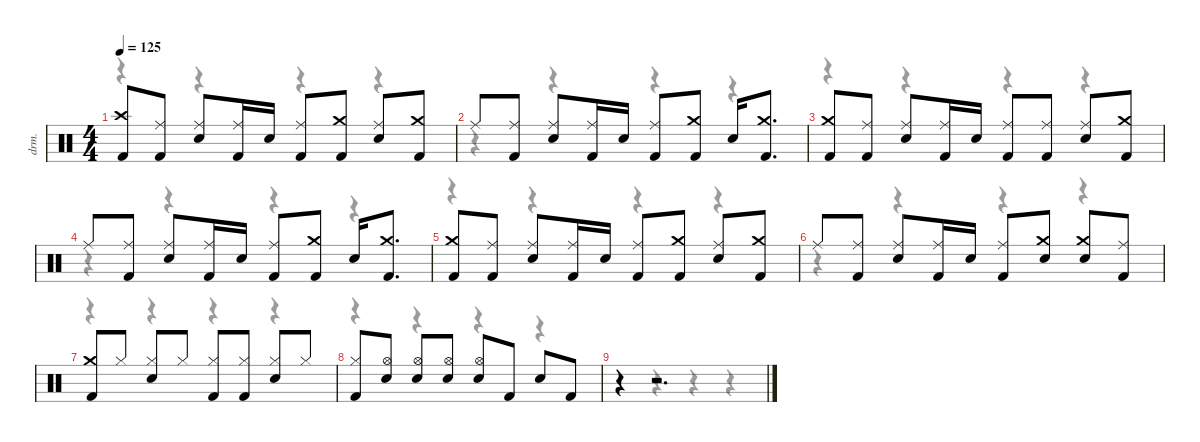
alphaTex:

\defaultSystemsLayout 4
\hideDynamics
\bracketExtendMode nobrackets
\otherSystemsTrackNameOrientation horizontal
\track ("Drums" "drm.") {instrument percussion}
\staff {score}
\articulation defaults
\voice
\ts (4 4)
\tempo 125
\clef neutral
\ks c
("Crash high (hit)" "Kick (hit) 2").8{dy f} ("Ride (middle)" "Kick (hit) 2").8 ("Ride (middle)" "Snare (hit) 2").8 ("Ride (middle)" "Kick (hit) 2").16 "Snare (hit) 2".16 ("Ride (middle)" "Kick (hit) 2").8 ("Crash medium (hit)" "Kick (hit) 2").8 ("Ride (middle)" "Snare (hit) 2").8 ("Crash medium (hit)" "Kick (hit) 2").8 |
"Ride (middle)".8 ("Ride (middle)" "Kick (hit) 2").8 ("Ride (middle)" "Snare (hit) 2").8 ("Ride (middle)" "Kick (hit) 2").16 "Snare (hit) 2".16 ("Ride (middle)" "Kick (hit) 2").8 ("Crash medium (hit)" "Kick (hit) 2").8 "Snare (hit) 2".16 ("Crash medium (hit)" "Kick (hit) 2").8{d} |
("Crash medium (hit)" "Kick (hit) 2").8 ("Ride (middle)" "Kick (hit) 2").8 ("Ride (middle)" "Snare (hit) 2").8 ("Ride (middle)" "Kick (hit) 2").16 "Snare (hit) 2".16 ("Ride (middle)" "Kick (hit) 2").8 ("Ride (middle)" "Kick (hit) 2").8 ("Ride (middle)" "Snare (hit) 2").8 ("Crash medium (hit)" "Kick (hit) 2").8 |
"Ride (middle)".8 ("Ride (middle)" "Kick (hit) 2").8 ("Ride (middle)" "Snare (hit) 2").8 ("Ride (middle)" "Kick (hit) 2").16 "Snare (hit) 2".16 ("Ride (middle)" "Kick (hit) 2").8 ("Crash medium (hit)" "Kick (hit) 2").8 "Snare (hit) 2".16 ("Crash medium (hit)" "Kick (hit) 2").8{d} |
("Crash medium (hit)" "Kick (hit) 2").8 ("Ride (middle)" "Kick (hit) 2").8 ("Ride (middle)" "Snare (hit) 2").8 ("Ride (middle)" "Kick (hit) 2").16 "Snare (hit) 2".16 ("Ride (middle)" "Kick (hit) 2").8 ("Crash medium (hit)" "Kick (hit) 2").8 ("Ride (middle)" "Snare (hit) 2").8 ("Crash medium (hit)" "Kick (hit) 2").8 |
"Ride (middle)".8 ("Ride (middle)" "Kick (hit) 2").8 ("Ride (middle)" "Snare (hit) 2").8 ("Ride (middle)" "Kick (hit) 2").16 "Snare (hit) 2".16 ("Ride (middle)" "Kick (hit) 2").8 ("Crash medium (hit)" "Snare (hit) 2").8 ("Crash medium (hit)" "Snare (hit) 2").8 ("Ride (middle)" "Kick (hit) 2").8 |
("Crash medium (hit)" "Kick (hit) 2").8 "Hi-Hat (closed)".8 ("Hi-Hat (closed)" "Snare (hit) 2").8 "Hi-Hat (closed)".8 ("Hi-Hat (closed)" "Kick (hit) 2").8 ("Hi-Hat (closed)" "Kick (hit) 2").8 ("Hi-Hat (closed)" "Snare (hit) 2").8 "Hi-Hat (closed)".8 |
("Hi-Hat (closed)" "Kick (hit) 2").8 ("Hi-Hat (open)" "Snare (hit) 2").8 ("Hi-Hat (open)" "Snare (hit) 2").8 ("Hi-Hat (open)" "Snare (hit) 2").8 ("Hi-Hat (open)" "Snare (hit) 2").8 "Kick (hit) 2".8 "Snare (hit) 2".8 "Kick (hit) 2".8 |
r.4 r.2{d}
\voice
\clef neutral
\ottava regular
\simile none
\ks c
r.4{dy mf} r.4 r.4 r.4 |
r.4 r.4 r.4 r.4 |
r.4 r.4 r.4 r.4 |
r.4 r.4 r.4 r.4 |
r.4 r.4 r.4 r.4 |
r.4 r.4 r.4 r.4 |
r.4 r.4 r.4 r.4 |
r.4 r.4 r.4 r.4 |
r.4 r.4 r.4 r.4
